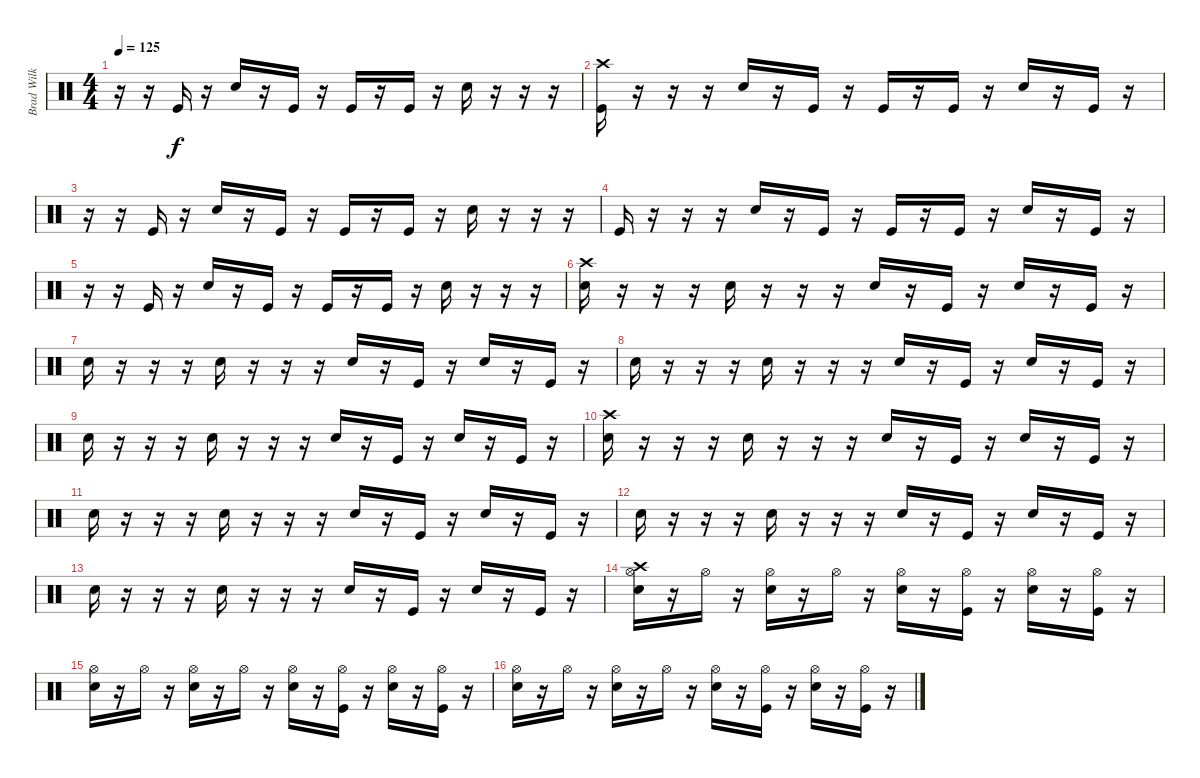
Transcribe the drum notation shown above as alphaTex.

\track ("Brad Wilk - Drums" "Brad Wilk ") {instrument percussion}
\staff {score}
\articulation defaults
\ts (4 4)
\tempo 125
\clef neutral
\ks c
r.16{dy f} r.16 "Kick (hit)".16 r.16 "Snare (hit) 2".16 r.16 "Kick (hit)".16 r.16 "Kick (hit)".16 r.16 "Kick (hit)".16 r.16 "Snare (hit) 2".16 r.16 r.16 r.16 |
("Crash high (hit)" "Kick (hit)").16 r.16 r.16 r.16 "Snare (hit) 2".16 r.16 "Kick (hit)".16 r.16 "Kick (hit)".16 r.16 "Kick (hit)".16 r.16 "Snare (hit) 2".16 r.16 "Kick (hit)".16 r.16 |
r.16 r.16 "Kick (hit)".16 r.16 "Snare (hit) 2".16 r.16 "Kick (hit)".16 r.16 "Kick (hit)".16 r.16 "Kick (hit)".16 r.16 "Snare (hit) 2".16 r.16 r.16 r.16 |
"Kick (hit)".16 r.16 r.16 r.16 "Snare (hit) 2".16 r.16 "Kick (hit)".16 r.16 "Kick (hit)".16 r.16 "Kick (hit)".16 r.16 "Snare (hit) 2".16 r.16 "Kick (hit)".16 r.16 |
r.16 r.16 "Kick (hit)".16 r.16 "Snare (hit) 2".16 r.16 "Kick (hit)".16 r.16 "Kick (hit)".16 r.16 "Kick (hit)".16 r.16 "Snare (hit) 2".16 r.16 r.16 r.16 |
("Crash high (hit)" "Snare (hit) 2").16 r.16 r.16 r.16 "Snare (hit) 2".16 r.16 r.16 r.16 "Snare (hit) 2".16 r.16 "Kick (hit)".16 r.16 "Snare (hit) 2".16 r.16 "Kick (hit)".16 r.16 |
"Snare (hit) 2".16 r.16 r.16 r.16 "Snare (hit) 2".16 r.16 r.16 r.16 "Snare (hit) 2".16 r.16 "Kick (hit)".16 r.16 "Snare (hit) 2".16 r.16 "Kick (hit)".16 r.16 |
"Snare (hit) 2".16 r.16 r.16 r.16 "Snare (hit) 2".16 r.16 r.16 r.16 "Snare (hit) 2".16 r.16 "Kick (hit)".16 r.16 "Snare (hit) 2".16 r.16 "Kick (hit)".16 r.16 |
"Snare (hit) 2".16 r.16 r.16 r.16 "Snare (hit) 2".16 r.16 r.16 r.16 "Snare (hit) 2".16 r.16 "Kick (hit)".16 r.16 "Snare (hit) 2".16 r.16 "Kick (hit)".16 r.16 |
("Crash high (hit)" "Snare (hit) 2").16 r.16 r.16 r.16 "Snare (hit) 2".16 r.16 r.16 r.16 "Snare (hit) 2".16 r.16 "Kick (hit)".16 r.16 "Snare (hit) 2".16 r.16 "Kick (hit)".16 r.16 |
"Snare (hit) 2".16 r.16 r.16 r.16 "Snare (hit) 2".16 r.16 r.16 r.16 "Snare (hit) 2".16 r.16 "Kick (hit)".16 r.16 "Snare (hit) 2".16 r.16 "Kick (hit)".16 r.16 |
"Snare (hit) 2".16 r.16 r.16 r.16 "Snare (hit) 2".16 r.16 r.16 r.16 "Snare (hit) 2".16 r.16 "Kick (hit)".16 r.16 "Snare (hit) 2".16 r.16 "Kick (hit)".16 r.16 |
"Snare (hit) 2".16 r.16 r.16 r.16 "Snare (hit) 2".16 r.16 r.16 r.16 "Snare (hit) 2".16 r.16 "Kick (hit)".16 r.16 "Snare (hit) 2".16 r.16 "Kick (hit)".16 r.16 |
("Crash high (hit)" "Snare (hit) 2" "Hi-Hat (open)").16 r.16 "Hi-Hat (open)".16 r.16 ("Snare (hit) 2" "Hi-Hat (open)").16 r.16 "Hi-Hat (open)".16 r.16 ("Snare (hit) 2" "Hi-Hat (open)").16 r.16 ("Hi-Hat (open)" "Kick (hit)").16 r.16 ("Snare (hit) 2" "Hi-Hat (open)").16 r.16 ("Hi-Hat (open)" "Kick (hit)").16 r.16 |
("Snare (hit) 2" "Hi-Hat (open)").16 r.16 "Hi-Hat (open)".16 r.16 ("Snare (hit) 2" "Hi-Hat (open)").16 r.16 "Hi-Hat (open)".16 r.16 ("Snare (hit) 2" "Hi-Hat (open)").16 r.16 ("Hi-Hat (open)" "Kick (hit)").16 r.16 ("Snare (hit) 2" "Hi-Hat (open)").16 r.16 ("Hi-Hat (open)" "Kick (hit)").16 r.16 |
("Snare (hit) 2" "Hi-Hat (open)").16 r.16 "Hi-Hat (open)".16 r.16 ("Snare (hit) 2" "Hi-Hat (open)").16 r.16 "Hi-Hat (open)".16 r.16 ("Snare (hit) 2" "Hi-Hat (open)").16 r.16 ("Hi-Hat (open)" "Kick (hit)").16 r.16 ("Snare (hit) 2" "Hi-Hat (open)").16 r.16 ("Hi-Hat (open)" "Kick (hit)").16 r.16
